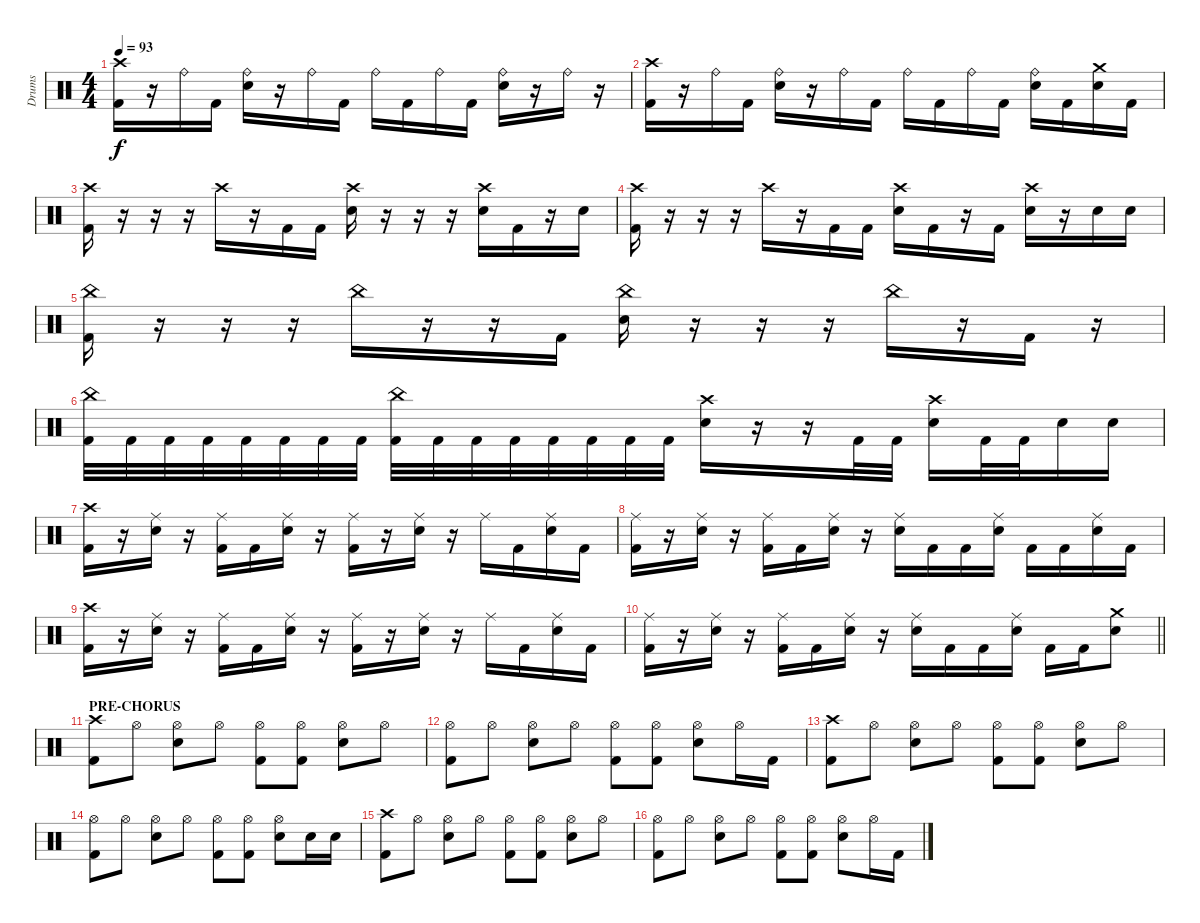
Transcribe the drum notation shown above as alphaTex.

\track ("Drums" "Drums") {instrument percussion}
\staff
\articulation defaults
\ts (4 4)
\tempo 93
\clef neutral
\ks c
("Crash high (hit)" "Kick (hit) 2").16{dy f} r.16 "Ride (bell)".16 "Kick (hit) 2".16 ("Ride (bell)" "Snare (hit) 2").16 r.16 "Ride (bell)".16 "Kick (hit) 2".16 "Ride (bell)".16 "Kick (hit) 2".16 "Ride (bell)".16 "Kick (hit) 2".16 ("Ride (bell)" "Snare (hit) 2").16 r.16 "Ride (bell)".16 r.16 |
("Crash high (hit)" "Kick (hit) 2").16 r.16 "Ride (bell)".16 "Kick (hit) 2".16 ("Ride (bell)" "Snare (hit) 2").16 r.16 "Ride (bell)".16 "Kick (hit) 2".16 "Ride (bell)".16 "Kick (hit) 2".16 "Ride (bell)".16 "Kick (hit) 2".16 ("Ride (bell)" "Snare (hit) 2").16 "Kick (hit) 2".16 ("Crash medium (hit)" "Snare (hit) 2").16 "Kick (hit) 2".16 |
("Crash high (hit)" "Kick (hit) 2").16 r.16 r.16 r.16 "Crash high (hit)".16 r.16 "Kick (hit) 2".16 "Kick (hit) 2".16 ("Crash high (hit)" "Snare (hit) 2").16 r.16 r.16 r.16 ("Crash high (hit)" "Snare (hit) 2").16 "Kick (hit) 2".16 r.16 "Snare (hit) 2".16 |
("Crash high (hit)" "Kick (hit) 2").16 r.16 r.16 r.16 "Crash high (hit)".16 r.16 "Kick (hit) 2".16 "Kick (hit) 2".16 ("Crash high (hit)" "Snare (hit) 2").16 "Kick (hit) 2".16 r.16 "Kick (hit) 2".16 ("Crash high (hit)" "Snare (hit) 2").16 r.16 "Snare (hit) 2".16 "Snare (hit) 2".16 |
("China (hit)" "Kick (hit) 2").16 r.16 r.16 r.16 "China (hit)".16 r.16 r.16 "Kick (hit) 2".16 ("China (hit)" "Snare (hit) 2").16 r.16 r.16 r.16 "China (hit)".16 r.16 "Kick (hit) 2".16 r.16 |
("China (hit)" "Kick (hit) 2").32 "Kick (hit) 2".32 "Kick (hit) 2".32 "Kick (hit) 2".32 "Kick (hit) 2".32 "Kick (hit) 2".32 "Kick (hit) 2".32 "Kick (hit) 2".32 ("China (hit)" "Kick (hit) 2").32 "Kick (hit) 2".32 "Kick (hit) 2".32 "Kick (hit) 2".32 "Kick (hit) 2".32 "Kick (hit) 2".32 "Kick (hit) 2".32 "Kick (hit) 2".32 ("Crash high (hit)" "Snare (hit) 2").16 r.16 r.16 "Kick (hit) 2".32 "Kick (hit) 2".32 ("Crash high (hit)" "Snare (hit) 2").16 "Kick (hit) 2".32 "Kick (hit) 2".32 "Snare (hit) 2".16 "Snare (hit) 2".16 |
("Crash high (hit)" "Kick (hit) 2").16 r.16 ("Ride (middle)" "Snare (hit) 2").16 r.16 ("Ride (middle)" "Kick (hit) 2").16 "Kick (hit) 2".16 ("Ride (middle)" "Snare (hit) 2").16 r.16 ("Ride (middle)" "Kick (hit) 2").16 r.16 ("Ride (middle)" "Snare (hit) 2").16 r.16 "Ride (middle)".16 "Kick (hit) 2".16 ("Ride (middle)" "Snare (hit) 2").16 "Kick (hit) 2".16 |
("Ride (middle)" "Kick (hit) 2").16 r.16 ("Ride (middle)" "Snare (hit) 2").16 r.16 ("Ride (middle)" "Kick (hit) 2").16 "Kick (hit) 2".16 ("Ride (middle)" "Snare (hit) 2").16 r.16 ("Ride (middle)" "Snare (hit) 2").16 "Kick (hit) 2".16 "Kick (hit) 2".16 ("Ride (middle)" "Snare (hit) 2").16 "Kick (hit) 2".16 "Kick (hit) 2".16 ("Ride (middle)" "Snare (hit) 2").16 "Kick (hit) 2".16 |
("Crash high (hit)" "Kick (hit) 2").16 r.16 ("Ride (middle)" "Snare (hit) 2").16 r.16 ("Ride (middle)" "Kick (hit) 2").16 "Kick (hit) 2".16 ("Ride (middle)" "Snare (hit) 2").16 r.16 ("Ride (middle)" "Kick (hit) 2").16 r.16 ("Ride (middle)" "Snare (hit) 2").16 r.16 "Ride (middle)".16 "Kick (hit) 2".16 ("Ride (middle)" "Snare (hit) 2").16 "Kick (hit) 2".16 |
\barLineRight lightlight
("Ride (middle)" "Kick (hit) 2").16 r.16 ("Ride (middle)" "Snare (hit) 2").16 r.16 ("Ride (middle)" "Kick (hit) 2").16 "Kick (hit) 2".16 ("Ride (middle)" "Snare (hit) 2").16 r.16 ("Ride (middle)" "Snare (hit) 2").16 "Kick (hit) 2".16 "Kick (hit) 2".16 ("Ride (middle)" "Snare (hit) 2").16 "Kick (hit) 2".16 "Kick (hit) 2".16 ("Crash medium (hit)" "Snare (hit) 2").8 |
\section ("" "PRE-CHORUS")
("Crash high (hit)" "Kick (hit) 2").8 "Hi-Hat (open)".8 ("Hi-Hat (open)" "Snare (hit) 2").8 "Hi-Hat (open)".8 ("Hi-Hat (open)" "Kick (hit) 2").8 ("Hi-Hat (open)" "Kick (hit) 2").8 ("Hi-Hat (open)" "Snare (hit) 2").8 "Hi-Hat (open)".8 |
("Hi-Hat (open)" "Kick (hit) 2").8 "Hi-Hat (open)".8 ("Hi-Hat (open)" "Snare (hit) 2").8 "Hi-Hat (open)".8 ("Hi-Hat (open)" "Kick (hit) 2").8 ("Hi-Hat (open)" "Kick (hit) 2").8 ("Hi-Hat (open)" "Snare (hit) 2").8 "Hi-Hat (open)".16 "Kick (hit) 2".16 |
("Crash high (hit)" "Kick (hit) 2").8 "Hi-Hat (open)".8 ("Hi-Hat (open)" "Snare (hit) 2").8 "Hi-Hat (open)".8 ("Hi-Hat (open)" "Kick (hit) 2").8 ("Hi-Hat (open)" "Kick (hit) 2").8 ("Hi-Hat (open)" "Snare (hit) 2").8 "Hi-Hat (open)".8 |
("Hi-Hat (open)" "Kick (hit) 2").8 "Hi-Hat (open)".8 ("Hi-Hat (open)" "Snare (hit) 2").8 "Hi-Hat (open)".8 ("Hi-Hat (open)" "Kick (hit) 2").8 ("Hi-Hat (open)" "Kick (hit) 2").8 ("Hi-Hat (open)" "Snare (hit) 2").8 "Snare (hit) 2".16 "Snare (hit) 2".16 |
("Crash high (hit)" "Kick (hit) 2").8 "Hi-Hat (open)".8 ("Hi-Hat (open)" "Snare (hit) 2").8 "Hi-Hat (open)".8 ("Hi-Hat (open)" "Kick (hit) 2").8 ("Hi-Hat (open)" "Kick (hit) 2").8 ("Hi-Hat (open)" "Snare (hit) 2").8 "Hi-Hat (open)".8 |
("Hi-Hat (open)" "Kick (hit) 2").8 "Hi-Hat (open)".8 ("Hi-Hat (open)" "Snare (hit) 2").8 "Hi-Hat (open)".8 ("Hi-Hat (open)" "Kick (hit) 2").8 ("Hi-Hat (open)" "Kick (hit) 2").8 ("Hi-Hat (open)" "Snare (hit) 2").8 "Hi-Hat (open)".16 "Kick (hit) 2".16
